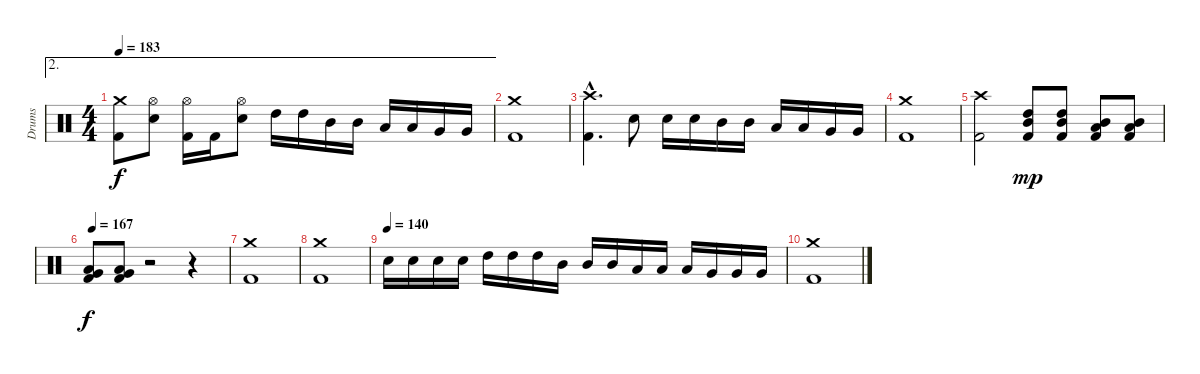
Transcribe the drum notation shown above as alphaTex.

\track ("Drums" "Drums") {instrument percussion}
\staff {score}
\articulation defaults
\ae 2
\ts (4 4)
\tempo 183
\clef neutral
\ks c
("Kick (hit) 2" "Crash medium (hit)").8{dy f} ("Electric Snare (hit)" "Hi-Hat (open)").8 ("Kick (hit) 2" "Hi-Hat (open)").16 "Kick (hit) 2".16 ("Electric Snare (hit)" "Hi-Hat (open)").8 "High Tom (hit)".16 "High Tom (hit)".16 "Mid Tom (hit)".16 "Mid Tom (hit)".16 "Low Tom (hit)".16 "Low Tom (hit)".16 "Very Low Tom (hit)".16 "Very Low Tom (hit)".16 |
("Kick (hit) 2" "Crash medium (hit)").1 |
("Kick (hit) 2"{hac} "Crash high (hit)"{hac}).4{d} "Electric Snare (hit)".8 "Electric Snare (hit)".16 "Electric Snare (hit)".16 "Mid Tom (hit)".16 "Mid Tom (hit)".16 "Low Tom (hit)".16 "Low Tom (hit)".16 "Very Low Tom (hit)".16 "Very Low Tom (hit)".16 |
("Kick (hit) 2" "Crash medium (hit)").1 |
("Kick (hit) 2" "Crash high (hit)").2 ("Kick (hit) 2" "High Tom (hit)" "Mid Tom (hit)").8{dy mp} ("Kick (hit) 2" "High Tom (hit)" "Mid Tom (hit)").8 ("Kick (hit) 2" "Mid Tom (hit)" "Low Tom (hit)").8 ("Kick (hit) 2" "Mid Tom (hit)" "Low Tom (hit)").8 |
\tempo 167
("Kick (hit) 2" "Low Tom (hit)" "Very Low Tom (hit)").8{dy f} ("Kick (hit) 2" "Low Tom (hit)" "Very Low Tom (hit)").8 r.2 r.4 |
("Kick (hit) 2" "Crash medium (hit)").1 |
("Kick (hit) 2" "Crash medium (hit)").1 |
\tempo (140)
"Electric Snare (hit)".16 "Electric Snare (hit)".16 "Electric Snare (hit)".16 "Electric Snare (hit)".16 "High Tom (hit)".16 "High Tom (hit)".16 "High Tom (hit)".16 "Mid Tom (hit)".16 "Mid Tom (hit)".16 "Mid Tom (hit)".16 "Low Tom (hit)".16 "Low Tom (hit)".16 "Low Tom (hit)".16 "Very Low Tom (hit)".16 "Very Low Tom (hit)".16 "Very Low Tom (hit)".16 |
("Kick (hit) 2" "Crash medium (hit)").1
